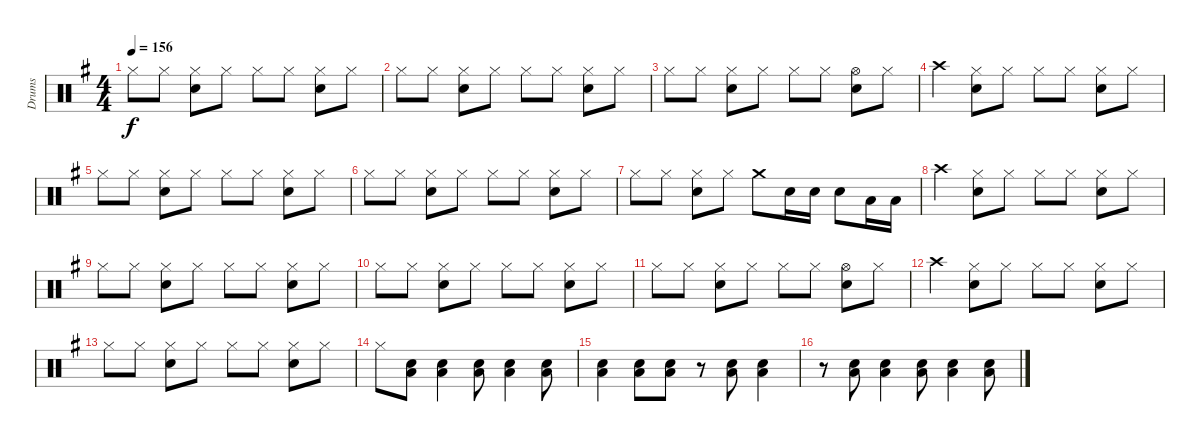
\track ("Drums" "Drums") {instrument percussion}
\staff {score}
\articulation defaults
\ts (4 4)
\tempo 156
\clef neutral
\ks g "Hi-Hat (closed)".8{dy f} "Hi-Hat (closed)".8
("Hi-Hat (closed)" "Snare (hit) 2").8 "Hi-Hat (closed)".8 "Hi-Hat (closed)".8 "Hi-Hat (closed)".8 ("Hi-Hat (closed)" "Snare (hit) 2").8 "Hi-Hat (closed)".8 |
"Hi-Hat (closed)".8 "Hi-Hat (closed)".8 ("Hi-Hat (closed)" "Snare (hit) 2").8 "Hi-Hat (closed)".8 "Hi-Hat (closed)".8 "Hi-Hat (closed)".8 ("Hi-Hat (closed)" "Snare (hit) 2").8 "Hi-Hat (closed)".8 |
"Hi-Hat (closed)".8 "Hi-Hat (closed)".8 ("Hi-Hat (closed)" "Snare (hit) 2").8 "Hi-Hat (closed)".8 "Hi-Hat (closed)".8 "Hi-Hat (closed)".8 ("Hi-Hat (open)" "Snare (hit) 2").8 "Hi-Hat (closed)".8 |
"Crash high (hit)".4 ("Hi-Hat (closed)" "Snare (hit) 2").8 "Hi-Hat (closed)".8 "Hi-Hat (closed)".8 "Hi-Hat (closed)".8 ("Hi-Hat (closed)" "Snare (hit) 2").8 "Hi-Hat (closed)".8 |
"Hi-Hat (closed)".8 "Hi-Hat (closed)".8 ("Hi-Hat (closed)" "Snare (hit) 2").8 "Hi-Hat (closed)".8 "Hi-Hat (closed)".8 "Hi-Hat (closed)".8 ("Hi-Hat (closed)" "Snare (hit) 2").8 "Hi-Hat (closed)".8 |
"Hi-Hat (closed)".8 "Hi-Hat (closed)".8 ("Hi-Hat (closed)" "Snare (hit) 2").8 "Hi-Hat (closed)".8 "Hi-Hat (closed)".8 "Hi-Hat (closed)".8 ("Hi-Hat (closed)" "Snare (hit) 2").8 "Hi-Hat (closed)".8 |
"Hi-Hat (closed)".8 "Hi-Hat (closed)".8 ("Hi-Hat (closed)" "Snare (hit) 2").8 "Hi-Hat (closed)".8 "Crash medium (hit)".8 "Snare (hit) 2".16 "Snare (hit) 2".16 "Snare (hit) 2".8 "Low Tom (hit)".16 "Low Tom (hit)".16 |
"Crash high (hit)".4 ("Hi-Hat (closed)" "Snare (hit) 2").8 "Hi-Hat (closed)".8 "Hi-Hat (closed)".8 "Hi-Hat (closed)".8 ("Hi-Hat (closed)" "Snare (hit) 2").8 "Hi-Hat (closed)".8 |
"Hi-Hat (closed)".8 "Hi-Hat (closed)".8 ("Hi-Hat (closed)" "Snare (hit) 2").8 "Hi-Hat (closed)".8 "Hi-Hat (closed)".8 "Hi-Hat (closed)".8 ("Hi-Hat (closed)" "Snare (hit) 2").8 "Hi-Hat (closed)".8 |
"Hi-Hat (closed)".8 "Hi-Hat (closed)".8 ("Hi-Hat (closed)" "Snare (hit) 2").8 "Hi-Hat (closed)".8 "Hi-Hat (closed)".8 "Hi-Hat (closed)".8 ("Hi-Hat (closed)" "Snare (hit) 2").8 "Hi-Hat (closed)".8 |
"Hi-Hat (closed)".8 "Hi-Hat (closed)".8 ("Hi-Hat (closed)" "Snare (hit) 2").8 "Hi-Hat (closed)".8 "Hi-Hat (closed)".8 "Hi-Hat (closed)".8 ("Hi-Hat (open)" "Snare (hit) 2").8 "Hi-Hat (closed)".8 |
"Crash high (hit)".4 ("Hi-Hat (closed)" "Snare (hit) 2").8 "Hi-Hat (closed)".8 "Hi-Hat (closed)".8 "Hi-Hat (closed)".8 ("Hi-Hat (closed)" "Snare (hit) 2").8 "Hi-Hat (closed)".8 |
"Hi-Hat (closed)".8 "Hi-Hat (closed)".8 ("Hi-Hat (closed)" "Snare (hit) 2").8 "Hi-Hat (closed)".8 "Hi-Hat (closed)".8 "Hi-Hat (closed)".8 ("Hi-Hat (closed)" "Snare (hit) 2").8 "Hi-Hat (closed)".8 |
"Hi-Hat (closed)".8 ("Snare (hit) 2" "Low Tom (hit)").8 ("Snare (hit) 2" "Low Tom (hit)").4 ("Snare (hit) 2" "Low Tom (hit)").8 ("Snare (hit) 2" "Low Tom (hit)").4 ("Snare (hit) 2" "Low Tom (hit)").8 |
("Snare (hit) 2" "Low Tom (hit)").4 ("Snare (hit) 2" "Low Tom (hit)").8 ("Snare (hit) 2" "Low Tom (hit)").8 r.8 ("Snare (hit) 2" "Low Tom (hit)").8 ("Snare (hit) 2" "Low Tom (hit)").4 |
r.8 ("Snare (hit) 2" "Low Tom (hit)").8 ("Snare (hit) 2" "Low Tom (hit)").4 ("Snare (hit) 2" "Low Tom (hit)").8 ("Snare (hit) 2" "Low Tom (hit)").4 ("Snare (hit) 2" "Low Tom (hit)").8
